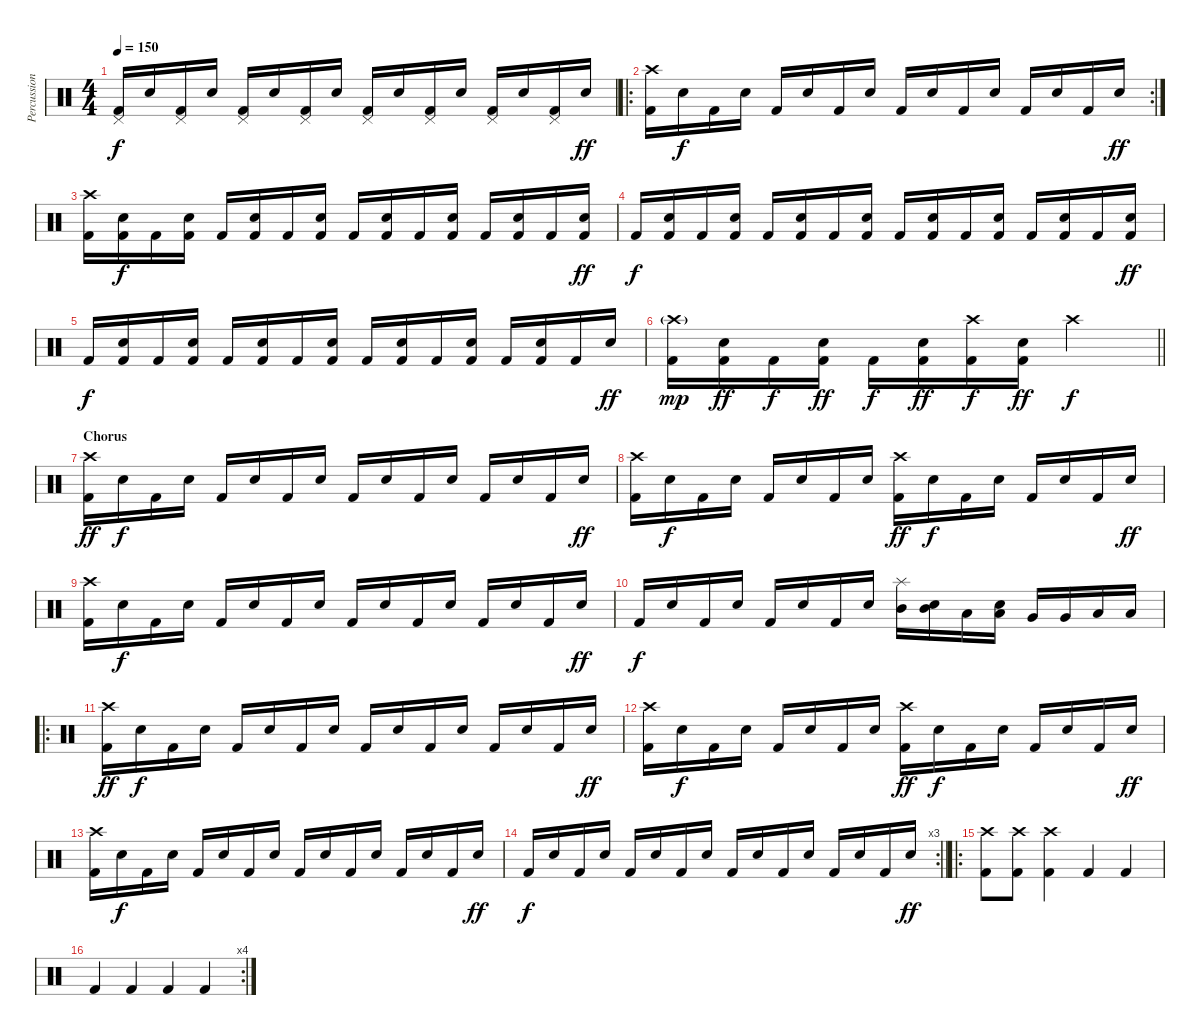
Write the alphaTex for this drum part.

\track ("Percussion" "Percussion") {instrument percussion}
\staff {score}
\articulation defaults
\ts (4 4)
\tempo 150
\clef neutral
\ks c
("Pedal Hi-Hat (hit)" "Kick (hit) 2").16{dy f} "Electric Snare (hit)".16 ("Pedal Hi-Hat (hit)" "Kick (hit) 2").16 "Electric Snare (hit)".16 ("Pedal Hi-Hat (hit)" "Kick (hit) 2").16 "Electric Snare (hit)".16 ("Pedal Hi-Hat (hit)" "Kick (hit) 2").16 "Electric Snare (hit)".16 ("Pedal Hi-Hat (hit)" "Kick (hit) 2").16 "Electric Snare (hit)".16 ("Pedal Hi-Hat (hit)" "Kick (hit) 2").16 "Electric Snare (hit)".16 ("Pedal Hi-Hat (hit)" "Kick (hit) 2").16 "Electric Snare (hit)".16 ("Pedal Hi-Hat (hit)" "Kick (hit) 2").16 "Electric Snare (hit)".16{dy ff} |
\ro
\rc 2
("Crash high (hit)" "Kick (hit) 2").16 "Electric Snare (hit)".16{dy f} "Kick (hit) 2".16 "Electric Snare (hit)".16 "Kick (hit) 2".16 "Electric Snare (hit)".16 "Kick (hit) 2".16 "Electric Snare (hit)".16 "Kick (hit) 2".16 "Electric Snare (hit)".16 "Kick (hit) 2".16 "Electric Snare (hit)".16 "Kick (hit) 2".16 "Electric Snare (hit)".16 "Kick (hit) 2".16 "Electric Snare (hit)".16{dy ff} |
("Crash high (hit)" "Kick (hit) 2").16 ("Electric Snare (hit)" "Kick (hit) 2").16{dy f} "Kick (hit) 2".16 ("Electric Snare (hit)" "Kick (hit) 2").16 "Kick (hit) 2".16 ("Electric Snare (hit)" "Kick (hit) 2").16 "Kick (hit) 2".16 ("Electric Snare (hit)" "Kick (hit) 2").16 "Kick (hit) 2".16 ("Electric Snare (hit)" "Kick (hit) 2").16 "Kick (hit) 2".16 ("Electric Snare (hit)" "Kick (hit) 2").16 "Kick (hit) 2".16 ("Electric Snare (hit)" "Kick (hit) 2").16 "Kick (hit) 2".16 ("Electric Snare (hit)" "Kick (hit) 2").16{dy ff} |
"Kick (hit) 2".16{dy f} ("Electric Snare (hit)" "Kick (hit) 2").16 "Kick (hit) 2".16 ("Electric Snare (hit)" "Kick (hit) 2").16 "Kick (hit) 2".16 ("Electric Snare (hit)" "Kick (hit) 2").16 "Kick (hit) 2".16 ("Electric Snare (hit)" "Kick (hit) 2").16 "Kick (hit) 2".16 ("Electric Snare (hit)" "Kick (hit) 2").16 "Kick (hit) 2".16 ("Electric Snare (hit)" "Kick (hit) 2").16 "Kick (hit) 2".16 ("Electric Snare (hit)" "Kick (hit) 2").16 "Kick (hit) 2".16 ("Electric Snare (hit)" "Kick (hit) 2").16{dy ff} |
"Kick (hit) 2".16{dy f} ("Electric Snare (hit)" "Kick (hit) 2").16 "Kick (hit) 2".16 ("Electric Snare (hit)" "Kick (hit) 2").16 "Kick (hit) 2".16 ("Electric Snare (hit)" "Kick (hit) 2").16 "Kick (hit) 2".16 ("Electric Snare (hit)" "Kick (hit) 2").16 "Kick (hit) 2".16 ("Electric Snare (hit)" "Kick (hit) 2").16 "Kick (hit) 2".16 ("Electric Snare (hit)" "Kick (hit) 2").16 "Kick (hit) 2".16 ("Electric Snare (hit)" "Kick (hit) 2").16 "Kick (hit) 2".16 "Electric Snare (hit)".16{dy ff} |
\barLineRight lightlight
("Crash high (hit)"{g} "Kick (hit) 2").16{dy mp} ("Electric Snare (hit)" "Kick (hit) 2").16{dy ff} "Kick (hit) 2".16{dy f} ("Electric Snare (hit)" "Kick (hit) 2").16{dy ff} "Kick (hit) 2".16{dy f} ("Electric Snare (hit)" "Kick (hit) 2").16{dy ff} ("Crash high (hit)" "Kick (hit) 2").16{dy f} ("Electric Snare (hit)" "Kick (hit) 2").16{dy ff} "Crash high (hit)".2{dy f} |
\section ("" "Chorus")
("Crash high (hit)" "Kick (hit) 2").16{dy ff} "Electric Snare (hit)".16{dy f} "Kick (hit) 2".16 "Electric Snare (hit)".16 "Kick (hit) 2".16 "Electric Snare (hit)".16 "Kick (hit) 2".16 "Electric Snare (hit)".16 "Kick (hit) 2".16 "Electric Snare (hit)".16 "Kick (hit) 2".16 "Electric Snare (hit)".16 "Kick (hit) 2".16 "Electric Snare (hit)".16 "Kick (hit) 2".16 "Electric Snare (hit)".16{dy ff} |
("Crash high (hit)" "Kick (hit) 2").16 "Electric Snare (hit)".16{dy f} "Kick (hit) 2".16 "Electric Snare (hit)".16 "Kick (hit) 2".16 "Electric Snare (hit)".16 "Kick (hit) 2".16 "Electric Snare (hit)".16 ("Crash high (hit)" "Kick (hit) 2").16{dy ff} "Electric Snare (hit)".16{dy f} "Kick (hit) 2".16 "Electric Snare (hit)".16 "Kick (hit) 2".16 "Electric Snare (hit)".16 "Kick (hit) 2".16 "Electric Snare (hit)".16{dy ff} |
("Crash high (hit)" "Kick (hit) 2").16 "Electric Snare (hit)".16{dy f} "Kick (hit) 2".16 "Electric Snare (hit)".16 "Kick (hit) 2".16 "Electric Snare (hit)".16 "Kick (hit) 2".16 "Electric Snare (hit)".16 "Kick (hit) 2".16 "Electric Snare (hit)".16 "Kick (hit) 2".16 "Electric Snare (hit)".16 "Kick (hit) 2".16 "Electric Snare (hit)".16 "Kick (hit) 2".16 "Electric Snare (hit)".16{dy ff} |
"Kick (hit) 2".16{dy f} "Electric Snare (hit)".16 "Kick (hit) 2".16 "Electric Snare (hit)".16 "Kick (hit) 2".16 "Electric Snare (hit)".16 "Kick (hit) 2".16 "Electric Snare (hit)".16 ("Splash (hit)" "Mid Tom (hit)").16 ("Electric Snare (hit)" "Mid Tom (hit)").16 "Low Tom (hit)".16 ("Electric Snare (hit)" "Low Tom (hit)").16 "Very Low Tom (hit)".16 "Very Low Tom (hit)".16 "Low Floor Tom (hit)".16 "Low Floor Tom (hit)".16 |
\ro
("Crash high (hit)" "Kick (hit) 2").16{dy ff} "Electric Snare (hit)".16{dy f} "Kick (hit) 2".16 "Electric Snare (hit)".16 "Kick (hit) 2".16 "Electric Snare (hit)".16 "Kick (hit) 2".16 "Electric Snare (hit)".16 "Kick (hit) 2".16 "Electric Snare (hit)".16 "Kick (hit) 2".16 "Electric Snare (hit)".16 "Kick (hit) 2".16 "Electric Snare (hit)".16 "Kick (hit) 2".16 "Electric Snare (hit)".16{dy ff} |
("Crash high (hit)" "Kick (hit) 2").16 "Electric Snare (hit)".16{dy f} "Kick (hit) 2".16 "Electric Snare (hit)".16 "Kick (hit) 2".16 "Electric Snare (hit)".16 "Kick (hit) 2".16 "Electric Snare (hit)".16 ("Crash high (hit)" "Kick (hit) 2").16{dy ff} "Electric Snare (hit)".16{dy f} "Kick (hit) 2".16 "Electric Snare (hit)".16 "Kick (hit) 2".16 "Electric Snare (hit)".16 "Kick (hit) 2".16 "Electric Snare (hit)".16{dy ff} |
("Crash high (hit)" "Kick (hit) 2").16 "Electric Snare (hit)".16{dy f} "Kick (hit) 2".16 "Electric Snare (hit)".16 "Kick (hit) 2".16 "Electric Snare (hit)".16 "Kick (hit) 2".16 "Electric Snare (hit)".16 "Kick (hit) 2".16 "Electric Snare (hit)".16 "Kick (hit) 2".16 "Electric Snare (hit)".16 "Kick (hit) 2".16 "Electric Snare (hit)".16 "Kick (hit) 2".16 "Electric Snare (hit)".16{dy ff} |
\rc 3
\barLineRight lightlight "Kick (hit) 2".16{dy f} "Electric Snare (hit)".16 "Kick (hit) 2".16 "Electric Snare (hit)".16 "Kick (hit) 2".16 "Electric Snare (hit)".16 "Kick (hit) 2".16 "Electric Snare (hit)".16 "Kick (hit) 2".16 "Electric Snare (hit)".16 "Kick (hit) 2".16 "Electric Snare (hit)".16 "Kick (hit) 2".16 "Electric Snare (hit)".16 "Kick (hit) 2".16 "Electric Snare (hit)".16{dy ff}
|
\ro
("Crash high (hit)" "Kick (hit) 2").8 ("Crash high (hit)" "Kick (hit) 2").8 ("Crash high (hit)" "Kick (hit) 2").4 "Kick (hit) 2".4 "Kick (hit) 2".4 |
\rc 4 "Kick (hit) 2".4 "Kick (hit) 2".4 "Kick (hit) 2".4 "Kick (hit) 2".4
